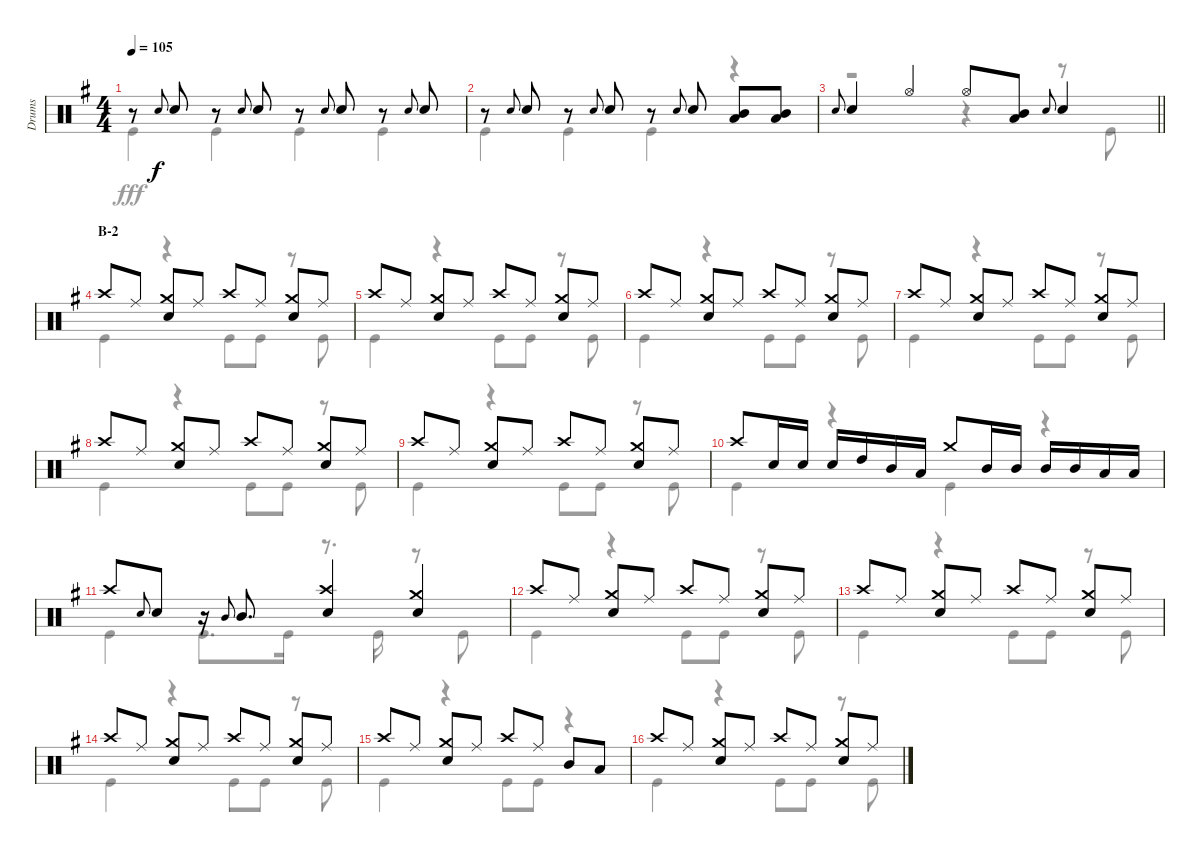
\track ("Drums" "Drums") {instrument percussion}
\staff {score}
\articulation defaults
\voice
\ts (4 4)
\tempo 105
\clef neutral
\ks g
r.8{dy f} "Snare (hit) 2".8{gr onbeat} "Snare (hit) 2".8 r.8 "Snare (hit) 2".8{gr onbeat} "Snare (hit) 2".8 r.8 "Snare (hit) 2".8{gr onbeat} "Snare (hit) 2".8 r.8 "Snare (hit) 2".8{gr onbeat} "Snare (hit) 2".8 |
r.8 "Snare (hit) 2".8{gr onbeat} "Snare (hit) 2".8 r.8 "Snare (hit) 2".8{gr onbeat} "Snare (hit) 2".8 r.8 "Snare (hit) 2".8{gr onbeat} "Snare (hit) 2".8 ("Mid Tom (hit)" "Low Tom (hit)").8 ("Mid Tom (hit)" "Low Tom (hit)").8 |
\barLineRight lightlight "Snare (hit) 2".8{gr onbeat} "Snare (hit) 2".4 "Hi-Hat (open)".4 "Hi-Hat (open)".8
("Mid Tom (hit)" "Low Tom (hit)").8 "Snare (hit) 2".8{gr onbeat} "Snare (hit) 2".4 |
\section ("" "B-2")
"Crash high (hit)".8 "Ride (middle)".8 ("Crash medium (hit)" "Snare (hit) 2").8 "Ride (middle)".8 "Crash high (hit)".8 "Ride (middle)".8 ("Crash medium (hit)" "Snare (hit) 2").8 "Ride (middle)".8 |
"Crash high (hit)".8 "Ride (middle)".8 ("Crash medium (hit)" "Snare (hit) 2").8 "Ride (middle)".8 "Crash high (hit)".8 "Ride (middle)".8 ("Crash medium (hit)" "Snare (hit) 2").8 "Ride (middle)".8 |
"Crash high (hit)".8 "Ride (middle)".8 ("Crash medium (hit)" "Snare (hit) 2").8 "Ride (middle)".8 "Crash high (hit)".8 "Ride (middle)".8 ("Crash medium (hit)" "Snare (hit) 2").8 "Ride (middle)".8 |
"Crash high (hit)".8 "Ride (middle)".8 ("Crash medium (hit)" "Snare (hit) 2").8 "Ride (middle)".8 "Crash high (hit)".8 "Ride (middle)".8 ("Crash medium (hit)" "Snare (hit) 2").8 "Ride (middle)".8 |
"Crash high (hit)".8 "Ride (middle)".8 ("Crash medium (hit)" "Snare (hit) 2").8 "Ride (middle)".8 "Crash high (hit)".8 "Ride (middle)".8 ("Crash medium (hit)" "Snare (hit) 2").8 "Ride (middle)".8 |
"Crash high (hit)".8 "Ride (middle)".8 ("Crash medium (hit)" "Snare (hit) 2").8 "Ride (middle)".8 "Crash high (hit)".8 "Ride (middle)".8 ("Crash medium (hit)" "Snare (hit) 2").8 "Ride (middle)".8 |
"Crash high (hit)".8 "Snare (hit) 2".16 "Snare (hit) 2".16 "Snare (hit) 2".16 "High Tom (hit)".16 "Mid Tom (hit)".16 "Low Tom (hit)".16 "Crash medium (hit)".8 "Mid Tom (hit)".16 "Mid Tom (hit)".16 "Mid Tom (hit)".16 "Mid Tom (hit)".16 "Low Tom (hit)".16 "Low Tom (hit)".16 |
"Crash high (hit)".8 "Snare (hit) 2".8{gr onbeat} "Snare (hit) 2".8 r.16 "Mid Tom (hit)".8{gr onbeat} "Mid Tom (hit)".8{d} ("Crash high (hit)" "Snare (hit) 2").4 ("Crash medium (hit)" "Snare (hit) 2").4 |
"Crash high (hit)".8 "Ride (middle)".8 ("Crash medium (hit)" "Snare (hit) 2").8 "Ride (middle)".8 "Crash high (hit)".8 "Ride (middle)".8 ("Crash medium (hit)" "Snare (hit) 2").8 "Ride (middle)".8 |
"Crash high (hit)".8 "Ride (middle)".8 ("Crash medium (hit)" "Snare (hit) 2").8 "Ride (middle)".8 "Crash high (hit)".8 "Ride (middle)".8 ("Crash medium (hit)" "Snare (hit) 2").8 "Ride (middle)".8 |
"Crash high (hit)".8 "Ride (middle)".8 ("Crash medium (hit)" "Snare (hit) 2").8 "Ride (middle)".8 "Crash high (hit)".8 "Ride (middle)".8 ("Crash medium (hit)" "Snare (hit) 2").8 "Ride (middle)".8 |
"Crash high (hit)".8 "Ride (middle)".8 ("Crash medium (hit)" "Snare (hit) 2").8 "Ride (middle)".8 "Crash high (hit)".8 "Ride (middle)".8 "Mid Tom (hit)".8 "Low Tom (hit)".8 |
"Crash high (hit)".8 "Ride (middle)".8 ("Crash medium (hit)" "Snare (hit) 2").8 "Ride (middle)".8 "Crash high (hit)".8 "Ride (middle)".8 ("Crash medium (hit)" "Snare (hit) 2").8 "Ride (middle)".8
\voice
\clef neutral
\ottava regular
\simile none
\ks g "Kick (hit)".4{dy fff} "Kick (hit)".4 "Kick (hit)".4 "Kick (hit)".4
|
"Kick (hit)".4 "Kick (hit)".4 "Kick (hit)".4 r.4 |
\barLineRight lightlight
r.2 r.4 r.8 "Kick (hit)".8 |
"Kick (hit)".4 r.4 "Kick (hit)".8 "Kick (hit)".8 r.8 "Kick (hit)".8 |
"Kick (hit)".4 r.4 "Kick (hit)".8 "Kick (hit)".8 r.8 "Kick (hit)".8 |
"Kick (hit)".4 r.4 "Kick (hit)".8 "Kick (hit)".8 r.8 "Kick (hit)".8 |
"Kick (hit)".4 r.4 "Kick (hit)".8 "Kick (hit)".8 r.8 "Kick (hit)".8 |
"Kick (hit)".4 r.4 "Kick (hit)".8 "Kick (hit)".8 r.8 "Kick (hit)".8 |
"Kick (hit)".4 r.4 "Kick (hit)".8 "Kick (hit)".8 r.8 "Kick (hit)".8 |
"Kick (hit)".4 r.4 "Kick (hit)".4 r.4 |
"Kick (hit)".4 "Kick (hit)".8{d} "Kick (hit)".16 r.8{d} "Kick (hit)".16 r.8 "Kick (hit)".8 |
"Kick (hit)".4 r.4 "Kick (hit)".8 "Kick (hit)".8 r.8 "Kick (hit)".8 |
"Kick (hit)".4 r.4 "Kick (hit)".8 "Kick (hit)".8 r.8 "Kick (hit)".8 |
"Kick (hit)".4 r.4 "Kick (hit)".8 "Kick (hit)".8 r.8 "Kick (hit)".8 |
"Kick (hit)".4 r.4 "Kick (hit)".8 "Kick (hit)".8 r.4 |
"Kick (hit)".4 r.4 "Kick (hit)".8 "Kick (hit)".8 r.8 "Kick (hit)".8
